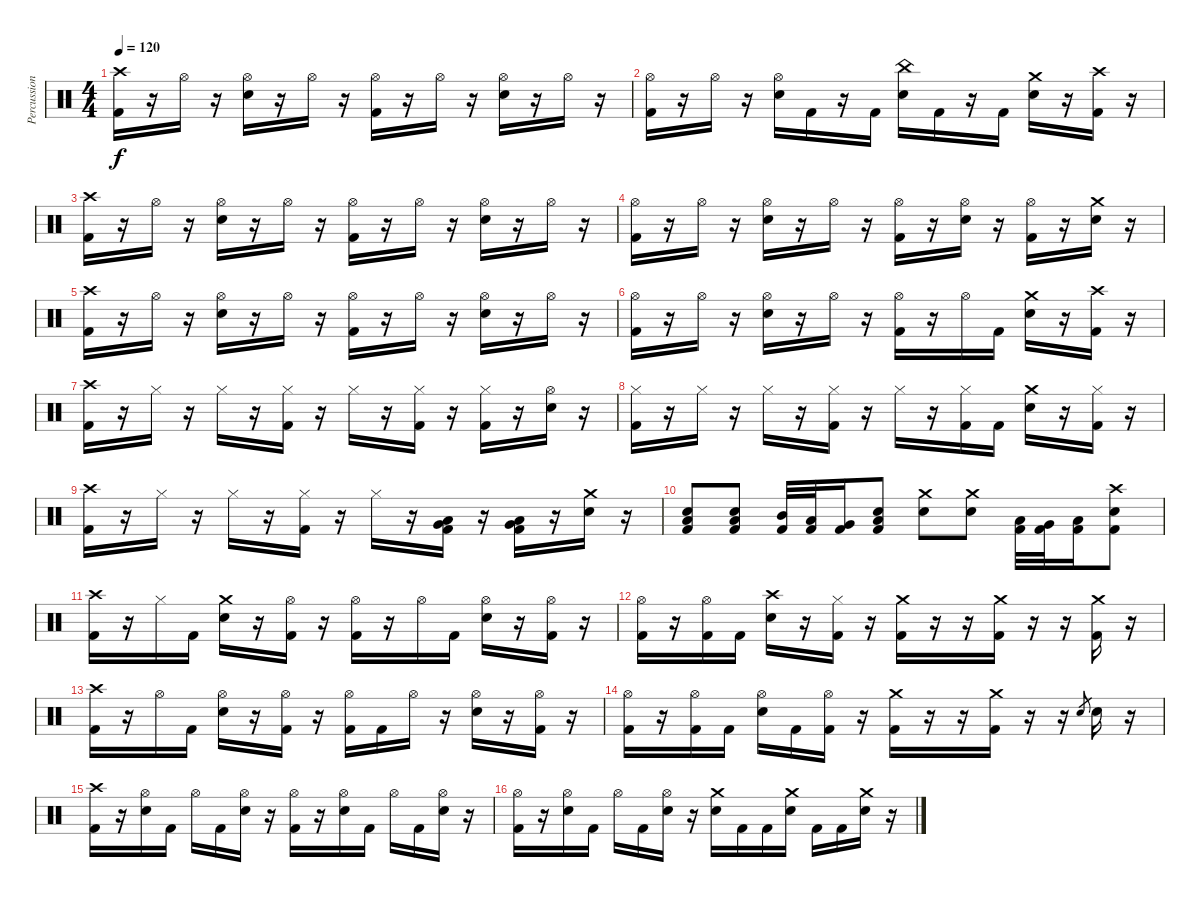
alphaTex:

\track ("Percussion" "Percussion") {instrument percussion}
\staff {score}
\articulation defaults
\ts (4 4)
\tempo 120
\clef neutral
\ks c
("Crash high (hit)" "Kick (hit) 2").16{dy f} r.16 "Hi-Hat (open)".16 r.16 ("Hi-Hat (open)" "Snare (hit) 2").16 r.16 "Hi-Hat (open)".16 r.16 ("Hi-Hat (open)" "Kick (hit) 2").16 r.16 "Hi-Hat (open)".16 r.16 ("Hi-Hat (open)" "Snare (hit) 2").16 r.16 "Hi-Hat (open)".16 r.16 |
("Hi-Hat (open)" "Kick (hit) 2").16 r.16 "Hi-Hat (open)".16 r.16 ("Hi-Hat (open)" "Snare (hit) 2").16 "Kick (hit) 2".16 r.16 "Kick (hit) 2".16 ("China (hit)" "Snare (hit) 2").16 "Kick (hit) 2".16 r.16 "Kick (hit) 2".16 ("Crash medium (hit)" "Snare (hit) 2").16 r.16 ("Crash high (hit)" "Kick (hit) 2").16 r.16 |
("Crash high (hit)" "Kick (hit) 2").16 r.16 "Hi-Hat (open)".16 r.16 ("Hi-Hat (open)" "Snare (hit) 2").16 r.16 "Hi-Hat (open)".16 r.16 ("Hi-Hat (open)" "Kick (hit) 2").16 r.16 "Hi-Hat (open)".16 r.16 ("Hi-Hat (open)" "Snare (hit) 2").16 r.16 "Hi-Hat (open)".16 r.16 |
("Hi-Hat (open)" "Kick (hit) 2").16 r.16 "Hi-Hat (open)".16 r.16 ("Hi-Hat (open)" "Snare (hit) 2").16 r.16 "Hi-Hat (open)".16 r.16 ("Hi-Hat (open)" "Kick (hit) 2").16 r.16 ("Hi-Hat (open)" "Snare (hit) 2").16 r.16 ("Hi-Hat (open)" "Kick (hit) 2").16 r.16 ("Crash medium (hit)" "Snare (hit) 2").16 r.16 |
("Crash high (hit)" "Kick (hit) 2").16 r.16 "Hi-Hat (open)".16 r.16 ("Hi-Hat (open)" "Snare (hit) 2").16 r.16 "Hi-Hat (open)".16 r.16 ("Hi-Hat (open)" "Kick (hit) 2").16 r.16 "Hi-Hat (open)".16 r.16 ("Hi-Hat (open)" "Snare (hit) 2").16 r.16 "Hi-Hat (open)".16 r.16 |
("Hi-Hat (open)" "Kick (hit) 2").16 r.16 "Hi-Hat (open)".16 r.16 ("Hi-Hat (open)" "Snare (hit) 2").16 r.16 "Hi-Hat (open)".16 r.16 ("Hi-Hat (open)" "Kick (hit) 2").16 r.16 "Hi-Hat (open)".16 "Kick (hit) 2".16 ("Crash medium (hit)" "Snare (hit) 2").16 r.16 ("Crash high (hit)" "Kick (hit) 2").16 r.16 |
("Crash high (hit)" "Kick (hit) 2").16 r.16 "Hi-Hat (closed)".16 r.16 "Hi-Hat (closed)".16 r.16 ("Hi-Hat (closed)" "Kick (hit) 2").16 r.16 "Hi-Hat (closed)".16 r.16 ("Hi-Hat (closed)" "Kick (hit) 2").16 r.16 ("Hi-Hat (closed)" "Kick (hit) 2").16 r.16 ("Hi-Hat (open)" "Snare (hit) 2").16 r.16 |
("Hi-Hat (closed)" "Kick (hit) 2").16 r.16 "Hi-Hat (closed)".16 r.16 "Hi-Hat (closed)".16 r.16 ("Hi-Hat (closed)" "Kick (hit) 2").16 r.16 "Hi-Hat (closed)".16 r.16 ("Hi-Hat (closed)" "Kick (hit) 2").16 "Kick (hit) 2".16 ("Crash medium (hit)" "Snare (hit) 2").16 r.16 ("Hi-Hat (closed)" "Kick (hit) 2").16 r.16 |
("Crash high (hit)" "Kick (hit) 2").16 r.16 "Hi-Hat (closed)".16 r.16 "Hi-Hat (closed)".16 r.16 ("Hi-Hat (closed)" "Kick (hit) 2").16 r.16 "Hi-Hat (closed)".16 r.16 ("Very Low Tom (hit)" "Low Floor Tom (hit)" "Kick (hit) 2").16 r.16 ("Very Low Tom (hit)" "Low Floor Tom (hit)" "Kick (hit) 2").16 r.16 ("Crash medium (hit)" "Snare (hit) 2").16 r.16 |
("Low Floor Tom (hit)" "Snare (hit) 2" "Kick (hit) 2").8 ("Low Floor Tom (hit)" "Snare (hit) 2" "Kick (hit) 2").8 ("Mid Tom (hit)" "Kick (hit) 2").32 ("Low Tom (hit)" "Kick (hit) 2").32 ("Very Low Tom (hit)" "Kick (hit) 2").16 ("Low Floor Tom (hit)" "Snare (hit) 2" "Kick (hit) 2").8 ("Crash medium (hit)" "Snare (hit) 2").8 ("Crash medium (hit)" "Snare (hit) 2").8 ("Low Tom (hit)" "Kick (hit) 2").32 ("Very Low Tom (hit)" "Kick (hit) 2").32 ("Low Floor Tom (hit)" "Kick (hit) 2").16 ("Crash high (hit)" "Snare (hit) 2" "Kick (hit) 2").8 |
("Crash high (hit)" "Kick (hit) 2").16 r.16 "Hi-Hat (closed)".16 "Kick (hit) 2".16 ("Crash medium (hit)" "Snare (hit) 2").16 r.16 ("Hi-Hat (open)" "Kick (hit) 2").16 r.16 ("Hi-Hat (open)" "Kick (hit) 2").16 r.16 "Hi-Hat (open)".16 "Kick (hit) 2".16 ("Hi-Hat (open)" "Snare (hit) 2").16 r.16 ("Hi-Hat (open)" "Kick (hit) 2").16 r.16 |
("Hi-Hat (open)" "Kick (hit) 2").16 r.16 ("Hi-Hat (open)" "Kick (hit) 2").16 "Kick (hit) 2".16 ("Crash high (hit)" "Snare (hit) 2").16 r.16 ("Hi-Hat (closed)" "Kick (hit) 2").16 r.16 ("Crash medium (hit)" "Kick (hit) 2").16 r.16 r.16 ("Crash medium (hit)" "Kick (hit) 2").16 r.16 r.16 ("Crash medium (hit)" "Kick (hit) 2").16 r.16 |
("Crash high (hit)" "Kick (hit) 2").16 r.16 "Hi-Hat (open)".16 "Kick (hit) 2".16 ("Hi-Hat (open)" "Snare (hit) 2").16 r.16 ("Hi-Hat (open)" "Kick (hit) 2").16 r.16 ("Hi-Hat (open)" "Kick (hit) 2").16 "Kick (hit) 2".16 "Hi-Hat (open)".16 r.16 ("Hi-Hat (open)" "Snare (hit) 2").16 r.16 ("Hi-Hat (open)" "Kick (hit) 2").16 r.16 |
("Hi-Hat (open)" "Kick (hit) 2").16 r.16 ("Hi-Hat (open)" "Kick (hit) 2").16 "Kick (hit) 2".16 ("Hi-Hat (open)" "Snare (hit) 2").16 "Kick (hit) 2".16 ("Hi-Hat (open)" "Kick (hit) 2").16 r.16 ("Crash medium (hit)" "Kick (hit) 2").16 r.16 r.16 ("Crash medium (hit)" "Kick (hit) 2").16 r.16 r.16 "Snare (hit) 2".8{gr} "Snare (hit) 2".16 r.16 |
("Crash high (hit)" "Kick (hit) 2").16 r.16 ("Hi-Hat (open)" "Snare (hit) 2").16 "Kick (hit) 2".16 "Hi-Hat (open)".16 "Kick (hit) 2".16 ("Hi-Hat (open)" "Snare (hit) 2").16 r.16 ("Hi-Hat (open)" "Kick (hit) 2").16 r.16 ("Hi-Hat (open)" "Snare (hit) 2").16 "Kick (hit) 2".16 "Hi-Hat (open)".16 "Kick (hit) 2".16 ("Hi-Hat (open)" "Snare (hit) 2").16 r.16 |
("Hi-Hat (open)" "Kick (hit) 2").16 r.16 ("Hi-Hat (open)" "Snare (hit) 2").16 "Kick (hit) 2".16 "Hi-Hat (open)".16 "Kick (hit) 2".16 ("Hi-Hat (open)" "Snare (hit) 2").16 r.16 ("Crash medium (hit)" "Snare (hit) 2").16 "Kick (hit) 2".16 "Kick (hit) 2".16 ("Crash medium (hit)" "Snare (hit) 2").16 "Kick (hit) 2".16 "Kick (hit) 2".16 ("Crash medium (hit)" "Snare (hit) 2").16 r.16
